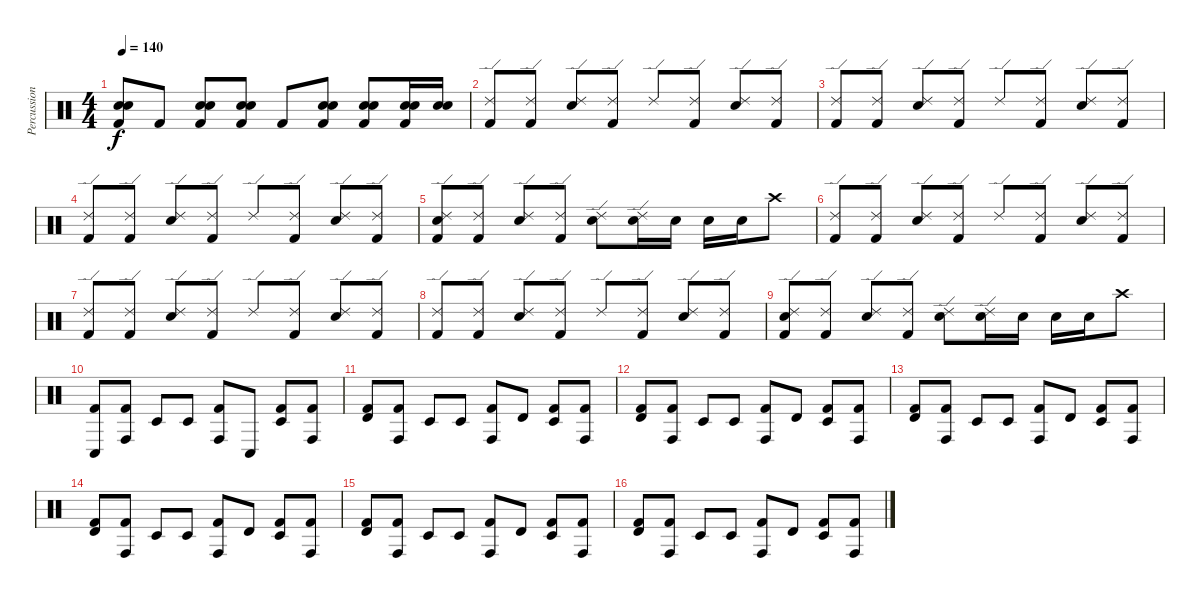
\track ("Percussion" "Percussion") {instrument percussion}
\staff {score}
\articulation defaults
\ts (4 4)
\tempo 140
\clef neutral
\ks c
("Kick (hit) 2" "Snare (hit) 2" "Snare (hit) 2").8{dy f} "Kick (hit) 2".8 ("Kick (hit) 2" "Snare (hit) 2" "Snare (hit) 2").8 ("Kick (hit) 2" "Snare (hit) 2" "Snare (hit) 2").8 "Kick (hit) 2".8 ("Kick (hit) 2" "Snare (hit) 2" "Snare (hit) 2").8 ("Kick (hit) 2" "Snare (hit) 2" "Snare (hit) 2").8 ("Kick (hit) 2" "Snare (hit) 2" "Snare (hit) 2").16 ("Snare (hit) 2" "Snare (hit) 2").16 |
("Kick (hit) 2" "Ride (edge) 2").8 ("Kick (hit) 2" "Ride (edge) 2").8 ("Snare (hit) 2" "Ride (edge) 2").8 ("Kick (hit) 2" "Ride (edge) 2").8 "Ride (edge) 2".8 ("Kick (hit) 2" "Ride (edge) 2").8 ("Snare (hit) 2" "Ride (edge) 2").8 ("Kick (hit) 2" "Ride (edge) 2").8 |
("Kick (hit) 2" "Ride (edge) 2").8 ("Kick (hit) 2" "Ride (edge) 2").8 ("Snare (hit) 2" "Ride (edge) 2").8 ("Kick (hit) 2" "Ride (edge) 2").8 "Ride (edge) 2".8 ("Kick (hit) 2" "Ride (edge) 2").8 ("Snare (hit) 2" "Ride (edge) 2").8 ("Kick (hit) 2" "Ride (edge) 2").8 |
("Kick (hit) 2" "Ride (edge) 2").8 ("Kick (hit) 2" "Ride (edge) 2").8 ("Snare (hit) 2" "Ride (edge) 2").8 ("Kick (hit) 2" "Ride (edge) 2").8 "Ride (edge) 2".8 ("Kick (hit) 2" "Ride (edge) 2").8 ("Snare (hit) 2" "Ride (edge) 2").8 ("Kick (hit) 2" "Ride (edge) 2").8 |
("Kick (hit) 2" "Snare (hit) 2" "Ride (edge) 2").8 ("Kick (hit) 2" "Ride (edge) 2").8 ("Snare (hit) 2" "Ride (edge) 2").8 ("Kick (hit) 2" "Ride (edge) 2").8 ("Snare (hit) 2" "Ride (edge) 2").8 ("Snare (hit) 2" "Ride (edge) 2").16 "Snare (hit) 2".16 "Snare (hit) 2".16 "Snare (hit) 2".16 "Crash high (hit)".8 |
("Kick (hit) 2" "Ride (edge) 2").8 ("Kick (hit) 2" "Ride (edge) 2").8 ("Snare (hit) 2" "Ride (edge) 2").8 ("Kick (hit) 2" "Ride (edge) 2").8 "Ride (edge) 2".8 ("Kick (hit) 2" "Ride (edge) 2").8 ("Snare (hit) 2" "Ride (edge) 2").8 ("Kick (hit) 2" "Ride (edge) 2").8 |
("Kick (hit) 2" "Ride (edge) 2").8 ("Kick (hit) 2" "Ride (edge) 2").8 ("Snare (hit) 2" "Ride (edge) 2").8 ("Kick (hit) 2" "Ride (edge) 2").8 "Ride (edge) 2".8 ("Kick (hit) 2" "Ride (edge) 2").8 ("Snare (hit) 2" "Ride (edge) 2").8 ("Kick (hit) 2" "Ride (edge) 2").8 |
("Kick (hit) 2" "Ride (edge) 2").8 ("Kick (hit) 2" "Ride (edge) 2").8 ("Snare (hit) 2" "Ride (edge) 2").8 ("Kick (hit) 2" "Ride (edge) 2").8 "Ride (edge) 2".8 ("Kick (hit) 2" "Ride (edge) 2").8 ("Snare (hit) 2" "Ride (edge) 2").8 ("Kick (hit) 2" "Ride (edge) 2").8 |
("Kick (hit) 2" "Snare (hit) 2" "Ride (edge) 2").8 ("Kick (hit) 2" "Ride (edge) 2").8 ("Snare (hit) 2" "Ride (edge) 2").8 ("Kick (hit) 2" "Ride (edge) 2").8 ("Snare (hit) 2" "Ride (edge) 2").8 ("Snare (hit) 2" "Ride (edge) 2").16 "Snare (hit) 2".16 "Snare (hit) 2".16 "Snare (hit) 2".16 "Crash high (hit)".8 |
("Kick (hit) 2" "Conga low (hit)").8 ("Kick (hit) 2" "Conga high (hit)").8 "Timbale low (hit)".8 "Timbale low (hit)".8 ("Kick (hit) 2" "Conga high (hit)").8 "Conga low (hit)".8 ("Kick (hit) 2" "Timbale low (hit)").8 ("Kick (hit) 2" "Conga high (hit)").8 |
("Kick (hit) 2" "Timbale high (hit)").8 ("Kick (hit) 2" "Conga high (hit)").8 "Timbale low (hit)".8 "Timbale low (hit)".8 ("Kick (hit) 2" "Conga high (hit)").8 "Timbale high (hit)".8 ("Kick (hit) 2" "Timbale low (hit)").8 ("Kick (hit) 2" "Conga high (hit)").8 |
("Kick (hit) 2" "Timbale high (hit)").8 ("Kick (hit) 2" "Conga high (hit)").8 "Timbale low (hit)".8 "Timbale low (hit)".8 ("Kick (hit) 2" "Conga high (hit)").8 "Timbale high (hit)".8 ("Kick (hit) 2" "Timbale low (hit)").8 ("Kick (hit) 2" "Conga high (hit)").8 |
("Kick (hit) 2" "Timbale high (hit)").8 ("Kick (hit) 2" "Conga high (hit)").8 "Timbale low (hit)".8 "Timbale low (hit)".8 ("Kick (hit) 2" "Conga high (hit)").8 "Timbale high (hit)".8 ("Kick (hit) 2" "Timbale low (hit)").8 ("Kick (hit) 2" "Conga high (hit)").8 |
("Kick (hit) 2" "Timbale high (hit)").8 ("Kick (hit) 2" "Conga high (hit)").8 "Timbale low (hit)".8 "Timbale low (hit)".8 ("Kick (hit) 2" "Conga high (hit)").8 "Timbale high (hit)".8 ("Kick (hit) 2" "Timbale low (hit)").8 ("Kick (hit) 2" "Conga high (hit)").8 |
("Kick (hit) 2" "Timbale high (hit)").8 ("Kick (hit) 2" "Conga high (hit)").8 "Timbale low (hit)".8 "Timbale low (hit)".8 ("Kick (hit) 2" "Conga high (hit)").8 "Timbale high (hit)".8 ("Kick (hit) 2" "Timbale low (hit)").8 ("Kick (hit) 2" "Conga high (hit)").8 |
("Kick (hit) 2" "Timbale high (hit)").8 ("Kick (hit) 2" "Conga high (hit)").8 "Timbale low (hit)".8 "Timbale low (hit)".8 ("Kick (hit) 2" "Conga high (hit)").8 "Timbale high (hit)".8 ("Kick (hit) 2" "Timbale low (hit)").8 ("Kick (hit) 2" "Conga high (hit)").8
